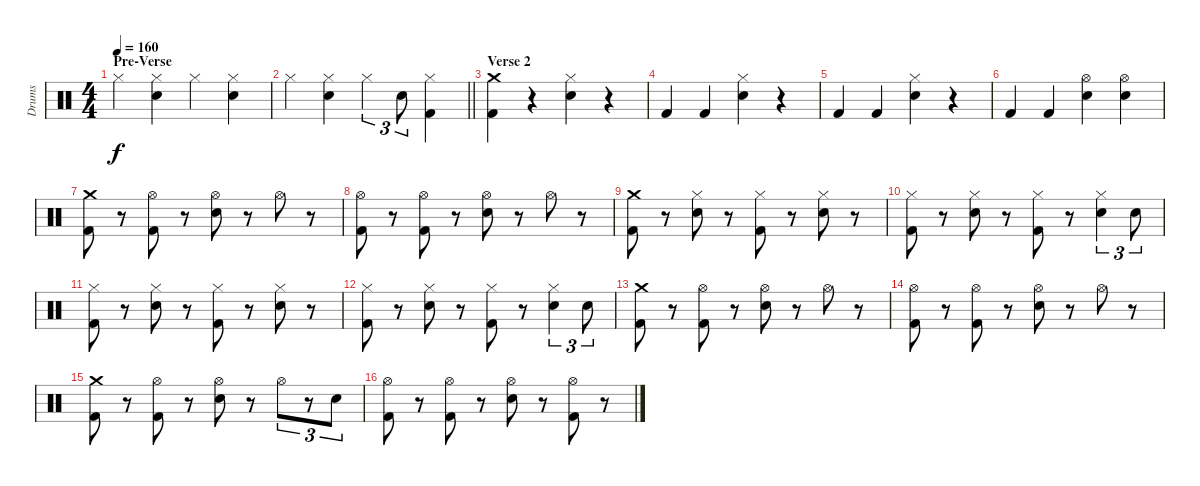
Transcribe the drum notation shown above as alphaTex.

\track ("Drums" "Drums") {instrument percussion}
\staff {score}
\articulation defaults
\ts (4 4)
\section ("" "Pre-Verse")
\tempo 160
\clef neutral
\ks c "Hi-Hat (closed)".4{dy f}
("Hi-Hat (closed)" "Electric Snare (hit)").4 "Hi-Hat (closed)".4 ("Hi-Hat (closed)" "Electric Snare (hit)").4 |
\barLineRight lightlight "Hi-Hat (closed)".4
("Hi-Hat (closed)" "Electric Snare (hit)").4 "Hi-Hat (closed)".4{tu (3 2)} "Electric Snare (hit)".8{tu (3 2)} ("Hi-Hat (closed)" "Kick (hit) 2").4 |
\section ("" "Verse 2")
("Crash medium (hit)" "Kick (hit) 2").4 r.4 ("Hi-Hat (closed)" "Electric Snare (hit)").4 r.4 |
"Kick (hit) 2".4 "Kick (hit) 2".4 ("Hi-Hat (closed)" "Electric Snare (hit)").4 r.4 |
"Kick (hit) 2".4 "Kick (hit) 2".4 ("Hi-Hat (closed)" "Electric Snare (hit)").4 r.4 |
"Kick (hit) 2".4 "Kick (hit) 2".4 ("Hi-Hat (open)" "Electric Snare (hit)").4 ("Hi-Hat (open)" "Electric Snare (hit)").4 |
("Crash medium (hit)" "Kick (hit) 2").8 r.8 ("Hi-Hat (open)" "Kick (hit) 2").8 r.8 ("Hi-Hat (open)" "Electric Snare (hit)").8 r.8 "Hi-Hat (open)".8 r.8 |
("Hi-Hat (open)" "Kick (hit) 2").8 r.8 ("Hi-Hat (open)" "Kick (hit) 2").8 r.8 ("Hi-Hat (open)" "Electric Snare (hit)").8 r.8 "Hi-Hat (open)".8 r.8 |
("Crash medium (hit)" "Kick (hit) 2").8 r.8 ("Hi-Hat (closed)" "Electric Snare (hit)").8 r.8 ("Hi-Hat (closed)" "Kick (hit) 2").8 r.8 ("Hi-Hat (closed)" "Electric Snare (hit)").8 r.8 |
("Hi-Hat (closed)" "Kick (hit) 2").8 r.8 ("Hi-Hat (closed)" "Electric Snare (hit)").8 r.8 ("Hi-Hat (closed)" "Kick (hit) 2").8 r.8 ("Hi-Hat (closed)" "Electric Snare (hit)").4{tu (3 2)} "Electric Snare (hit)".8{tu (3 2)} |
("Hi-Hat (closed)" "Kick (hit) 2").8 r.8 ("Hi-Hat (closed)" "Electric Snare (hit)").8 r.8 ("Hi-Hat (closed)" "Kick (hit) 2").8 r.8 ("Hi-Hat (closed)" "Electric Snare (hit)").8 r.8 |
("Hi-Hat (closed)" "Kick (hit) 2").8 r.8 ("Hi-Hat (closed)" "Electric Snare (hit)").8 r.8 ("Hi-Hat (closed)" "Kick (hit) 2").8 r.8 ("Hi-Hat (closed)" "Electric Snare (hit)").4{tu (3 2)} "Electric Snare (hit)".8{tu (3 2)} |
("Crash medium (hit)" "Kick (hit) 2").8 r.8 ("Hi-Hat (open)" "Kick (hit) 2").8 r.8 ("Hi-Hat (open)" "Electric Snare (hit)").8 r.8 "Hi-Hat (open)".8 r.8 |
("Hi-Hat (open)" "Kick (hit) 2").8 r.8 ("Hi-Hat (open)" "Kick (hit) 2").8 r.8 ("Hi-Hat (open)" "Electric Snare (hit)").8 r.8 "Hi-Hat (open)".8 r.8 |
("Crash medium (hit)" "Kick (hit) 2").8 r.8 ("Hi-Hat (open)" "Kick (hit) 2").8 r.8 ("Hi-Hat (open)" "Electric Snare (hit)").8 r.8 "Hi-Hat (open)".8{tu (3 2)} r.8{tu (3 2)} "Electric Snare (hit)".8{tu (3 2)} |
("Hi-Hat (open)" "Kick (hit) 2").8 r.8 ("Hi-Hat (open)" "Kick (hit) 2").8 r.8 ("Hi-Hat (open)" "Electric Snare (hit)").8 r.8 ("Hi-Hat (open)" "Kick (hit) 2").8 r.8
